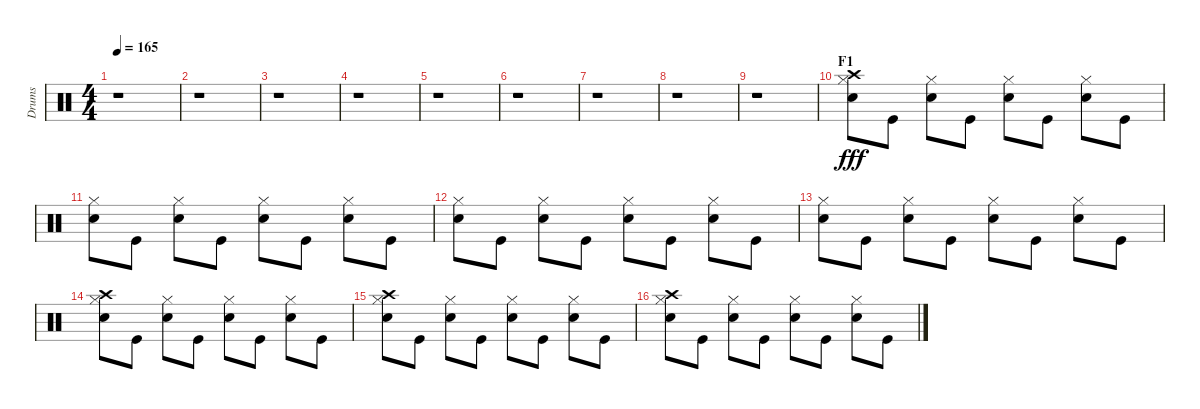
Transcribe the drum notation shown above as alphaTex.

\track ("Drums" "Drums") {instrument percussion}
\staff {score}
\articulation defaults
\ts (4 4)
\tempo 165
\clef neutral
\ks c
r.1{dy fff} |
r.1 |
r.1 |
r.1 |
r.1 |
r.1 |
r.1 |
r.1 |
r.1 |
\section ("" "F1")
("Hi-Hat (closed)" "Crash high (hit)" "Snare (hit) 2").8 "Kick (hit)".8 ("Hi-Hat (closed)" "Snare (hit) 2").8 "Kick (hit)".8 ("Hi-Hat (closed)" "Snare (hit) 2").8 "Kick (hit)".8 ("Hi-Hat (closed)" "Snare (hit) 2").8 "Kick (hit)".8 |
("Hi-Hat (closed)" "Snare (hit) 2").8 "Kick (hit)".8 ("Hi-Hat (closed)" "Snare (hit) 2").8 "Kick (hit)".8 ("Hi-Hat (closed)" "Snare (hit) 2").8 "Kick (hit)".8 ("Hi-Hat (closed)" "Snare (hit) 2").8 "Kick (hit)".8 |
("Hi-Hat (closed)" "Snare (hit) 2").8 "Kick (hit)".8 ("Hi-Hat (closed)" "Snare (hit) 2").8 "Kick (hit)".8 ("Hi-Hat (closed)" "Snare (hit) 2").8 "Kick (hit)".8 ("Hi-Hat (closed)" "Snare (hit) 2").8 "Kick (hit)".8 |
("Hi-Hat (closed)" "Snare (hit) 2").8 "Kick (hit)".8 ("Hi-Hat (closed)" "Snare (hit) 2").8 "Kick (hit)".8 ("Hi-Hat (closed)" "Snare (hit) 2").8 "Kick (hit)".8 ("Hi-Hat (closed)" "Snare (hit) 2").8 "Kick (hit)".8 |
("Hi-Hat (closed)" "Crash high (hit)" "Snare (hit) 2").8 "Kick (hit)".8 ("Hi-Hat (closed)" "Snare (hit) 2").8 "Kick (hit)".8 ("Hi-Hat (closed)" "Snare (hit) 2").8 "Kick (hit)".8 ("Hi-Hat (closed)" "Snare (hit) 2").8 "Kick (hit)".8 |
("Hi-Hat (closed)" "Crash high (hit)" "Snare (hit) 2").8 "Kick (hit)".8 ("Hi-Hat (closed)" "Snare (hit) 2").8 "Kick (hit)".8 ("Hi-Hat (closed)" "Snare (hit) 2").8 "Kick (hit)".8 ("Hi-Hat (closed)" "Snare (hit) 2").8 "Kick (hit)".8 |
("Hi-Hat (closed)" "Crash high (hit)" "Snare (hit) 2").8 "Kick (hit)".8 ("Hi-Hat (closed)" "Snare (hit) 2").8 "Kick (hit)".8 ("Hi-Hat (closed)" "Snare (hit) 2").8 "Kick (hit)".8 ("Hi-Hat (closed)" "Snare (hit) 2").8 "Kick (hit)".8
